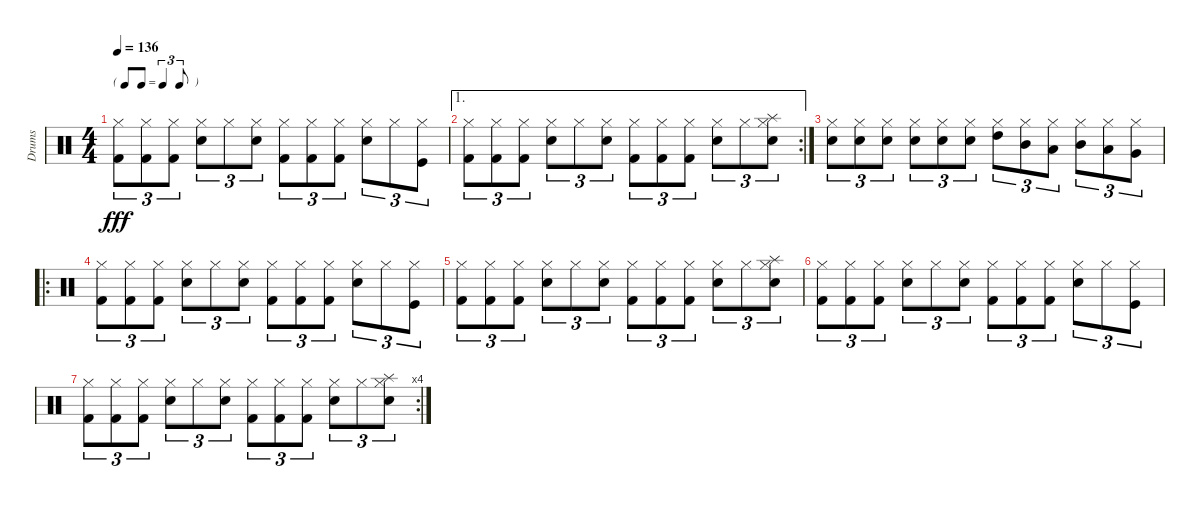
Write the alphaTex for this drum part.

\track ("Drums" "Drums") {instrument percussion}
\staff {score}
\articulation defaults
\ts (4 4)
\tf triplet8th
\tempo 136
\clef neutral
\ks c
("Hi-Hat (closed)" "Kick (hit) 2").8{tu (3 2) dy fff} ("Hi-Hat (closed)" "Kick (hit) 2").8{tu (3 2)} ("Hi-Hat (closed)" "Kick (hit) 2").8{tu (3 2)} ("Hi-Hat (closed)" "Snare (hit) 2").8{tu (3 2)} "Hi-Hat (closed)".8{tu (3 2)} ("Hi-Hat (closed)" "Snare (hit) 2").8{tu (3 2)} ("Hi-Hat (closed)" "Kick (hit) 2").8{tu (3 2)} ("Hi-Hat (closed)" "Kick (hit) 2").8{tu (3 2)} ("Hi-Hat (closed)" "Kick (hit) 2").8{tu (3 2)} ("Hi-Hat (closed)" "Snare (hit) 2").8{tu (3 2)} "Hi-Hat (closed)".8{tu (3 2)} ("Hi-Hat (closed)" "Kick (hit)").8{tu (3 2)} |
\ae 1
\rc 2
("Hi-Hat (closed)" "Kick (hit) 2").8{tu (3 2)} ("Hi-Hat (closed)" "Kick (hit) 2").8{tu (3 2)} ("Hi-Hat (closed)" "Kick (hit) 2").8{tu (3 2)} ("Hi-Hat (closed)" "Snare (hit) 2").8{tu (3 2)} "Hi-Hat (closed)".8{tu (3 2)} ("Hi-Hat (closed)" "Snare (hit) 2").8{tu (3 2)} ("Hi-Hat (closed)" "Kick (hit) 2").8{tu (3 2)} ("Hi-Hat (closed)" "Kick (hit) 2").8{tu (3 2)} ("Hi-Hat (closed)" "Kick (hit) 2").8{tu (3 2)} ("Hi-Hat (closed)" "Snare (hit) 2").8{tu (3 2)} "Hi-Hat (closed)".8{tu (3 2)} ("Hi-Hat (closed)" "Snare (hit) 2" "Splash (hit)").8{tu (3 2)} |
("Hi-Hat (closed)" "Snare (hit) 2").8{tu (3 2)} ("Hi-Hat (closed)" "Snare (hit) 2").8{tu (3 2)} ("Hi-Hat (closed)" "Snare (hit) 2").8{tu (3 2)} ("Hi-Hat (closed)" "Snare (hit) 2").8{tu (3 2)} ("Hi-Hat (closed)" "Snare (hit) 2").8{tu (3 2)} ("Hi-Hat (closed)" "Snare (hit) 2").8{tu (3 2)} ("Hi-Hat (closed)" "High Tom (hit)").8{tu (3 2)} ("Hi-Hat (closed)" "Mid Tom (hit)").8{tu (3 2)} ("Hi-Hat (closed)" "Low Tom (hit)").8{tu (3 2)} ("Hi-Hat (closed)" "Mid Tom (hit)").8{tu (3 2)} ("Hi-Hat (closed)" "Low Tom (hit)").8{tu (3 2)} ("Hi-Hat (closed)" "Very Low Tom (hit)").8{tu (3 2)} |
\ro
("Hi-Hat (closed)" "Kick (hit) 2").8{tu (3 2)} ("Hi-Hat (closed)" "Kick (hit) 2").8{tu (3 2)} ("Hi-Hat (closed)" "Kick (hit) 2").8{tu (3 2)} ("Hi-Hat (closed)" "Snare (hit) 2").8{tu (3 2)} "Hi-Hat (closed)".8{tu (3 2)} ("Hi-Hat (closed)" "Snare (hit) 2").8{tu (3 2)} ("Hi-Hat (closed)" "Kick (hit) 2").8{tu (3 2)} ("Hi-Hat (closed)" "Kick (hit) 2").8{tu (3 2)} ("Hi-Hat (closed)" "Kick (hit) 2").8{tu (3 2)} ("Hi-Hat (closed)" "Snare (hit) 2").8{tu (3 2)} "Hi-Hat (closed)".8{tu (3 2)} ("Hi-Hat (closed)" "Kick (hit)").8{tu (3 2)} |
("Hi-Hat (closed)" "Kick (hit) 2").8{tu (3 2)} ("Hi-Hat (closed)" "Kick (hit) 2").8{tu (3 2)} ("Hi-Hat (closed)" "Kick (hit) 2").8{tu (3 2)} ("Hi-Hat (closed)" "Snare (hit) 2").8{tu (3 2)} "Hi-Hat (closed)".8{tu (3 2)} ("Hi-Hat (closed)" "Snare (hit) 2").8{tu (3 2)} ("Hi-Hat (closed)" "Kick (hit) 2").8{tu (3 2)} ("Hi-Hat (closed)" "Kick (hit) 2").8{tu (3 2)} ("Hi-Hat (closed)" "Kick (hit) 2").8{tu (3 2)} ("Hi-Hat (closed)" "Snare (hit) 2").8{tu (3 2)} "Hi-Hat (closed)".8{tu (3 2)} ("Hi-Hat (closed)" "Snare (hit) 2" "Splash (hit)").8{tu (3 2)} |
("Hi-Hat (closed)" "Kick (hit) 2").8{tu (3 2)} ("Hi-Hat (closed)" "Kick (hit) 2").8{tu (3 2)} ("Hi-Hat (closed)" "Kick (hit) 2").8{tu (3 2)} ("Hi-Hat (closed)" "Snare (hit) 2").8{tu (3 2)} "Hi-Hat (closed)".8{tu (3 2)} ("Hi-Hat (closed)" "Snare (hit) 2").8{tu (3 2)} ("Hi-Hat (closed)" "Kick (hit) 2").8{tu (3 2)} ("Hi-Hat (closed)" "Kick (hit) 2").8{tu (3 2)} ("Hi-Hat (closed)" "Kick (hit) 2").8{tu (3 2)} ("Hi-Hat (closed)" "Snare (hit) 2").8{tu (3 2)} "Hi-Hat (closed)".8{tu (3 2)} ("Hi-Hat (closed)" "Kick (hit)").8{tu (3 2)} |
\rc 4
("Hi-Hat (closed)" "Kick (hit) 2").8{tu (3 2)} ("Hi-Hat (closed)" "Kick (hit) 2").8{tu (3 2)} ("Hi-Hat (closed)" "Kick (hit) 2").8{tu (3 2)} ("Hi-Hat (closed)" "Snare (hit) 2").8{tu (3 2)} "Hi-Hat (closed)".8{tu (3 2)} ("Hi-Hat (closed)" "Snare (hit) 2").8{tu (3 2)} ("Hi-Hat (closed)" "Kick (hit) 2").8{tu (3 2)} ("Hi-Hat (closed)" "Kick (hit) 2").8{tu (3 2)} ("Hi-Hat (closed)" "Kick (hit) 2").8{tu (3 2)} ("Hi-Hat (closed)" "Snare (hit) 2").8{tu (3 2)} "Hi-Hat (closed)".8{tu (3 2)} ("Hi-Hat (closed)" "Snare (hit) 2" "Splash (hit)").8{tu (3 2)}
